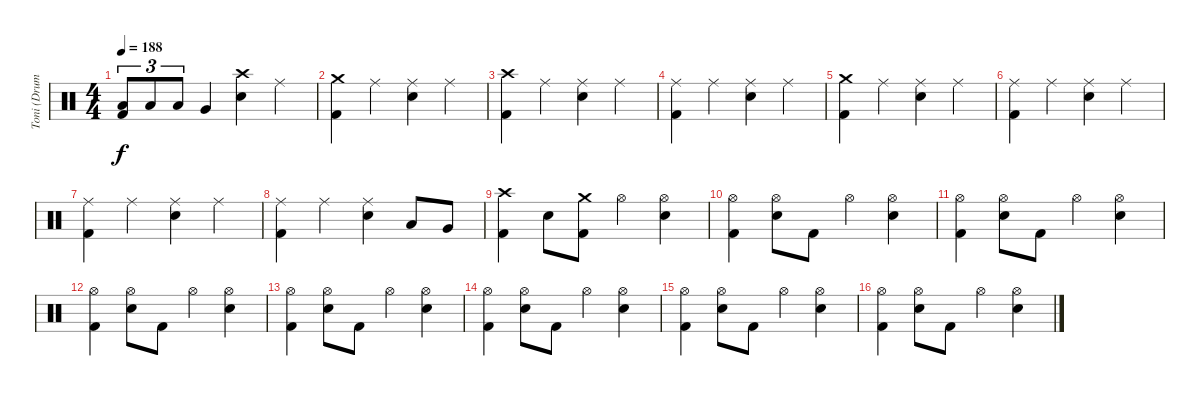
\track ("Toni (Drums)" "Toni (Drum") {instrument percussion}
\staff {score}
\articulation defaults
\ts (4 4)
\tempo 188
\clef neutral
\ks c
("Low Tom (hit)" "Kick (hit) 2").8{tu (3 2) dy f} "Low Tom (hit)".8{tu (3 2)} "Low Tom (hit)".8{tu (3 2)} "Very Low Tom (hit)".4 ("Crash high (hit)" "Electric Snare (hit)").4 "Ride (middle)".4 |
("Crash medium (hit)" "Kick (hit) 2").4 "Ride (middle)".4 ("Ride (middle)" "Electric Snare (hit)").4 "Ride (middle)".4 |
("Crash high (hit)" "Kick (hit) 2").4 "Ride (middle)".4 ("Ride (middle)" "Electric Snare (hit)").4 "Ride (middle)".4 |
("Ride (middle)" "Kick (hit) 2").4 "Ride (middle)".4 ("Ride (middle)" "Electric Snare (hit)").4 "Ride (middle)".4 |
("Crash medium (hit)" "Kick (hit) 2").4 "Ride (middle)".4 ("Ride (middle)" "Electric Snare (hit)").4 "Ride (middle)".4 |
("Ride (middle)" "Kick (hit) 2").4 "Ride (middle)".4 ("Ride (middle)" "Electric Snare (hit)").4 "Ride (middle)".4 |
("Ride (middle)" "Kick (hit) 2").4 "Ride (middle)".4 ("Ride (middle)" "Electric Snare (hit)").4 "Ride (middle)".4 |
("Ride (middle)" "Kick (hit) 2").4 "Ride (middle)".4 ("Ride (middle)" "Electric Snare (hit)").4 "Low Tom (hit)".8 "Very Low Tom (hit)".8 |
("Crash high (hit)" "Kick (hit) 2").4 "Electric Snare (hit)".8 ("Crash medium (hit)" "Kick (hit) 2").8 "Hi-Hat (open)".4 ("Hi-Hat (open)" "Electric Snare (hit)").4 |
("Hi-Hat (open)" "Kick (hit) 2").4 ("Hi-Hat (open)" "Electric Snare (hit)").8 "Kick (hit) 2".8 "Hi-Hat (open)".4 ("Hi-Hat (open)" "Electric Snare (hit)").4 |
("Hi-Hat (open)" "Kick (hit) 2").4 ("Hi-Hat (open)" "Electric Snare (hit)").8 "Kick (hit) 2".8 "Hi-Hat (open)".4 ("Hi-Hat (open)" "Electric Snare (hit)").4 |
("Hi-Hat (open)" "Kick (hit) 2").4 ("Hi-Hat (open)" "Electric Snare (hit)").8 "Kick (hit) 2".8 "Hi-Hat (open)".4 ("Hi-Hat (open)" "Electric Snare (hit)").4 |
("Hi-Hat (open)" "Kick (hit) 2").4 ("Hi-Hat (open)" "Electric Snare (hit)").8 "Kick (hit) 2".8 "Hi-Hat (open)".4 ("Hi-Hat (open)" "Electric Snare (hit)").4 |
("Hi-Hat (open)" "Kick (hit) 2").4 ("Hi-Hat (open)" "Electric Snare (hit)").8 "Kick (hit) 2".8 "Hi-Hat (open)".4 ("Hi-Hat (open)" "Electric Snare (hit)").4 |
("Hi-Hat (open)" "Kick (hit) 2").4 ("Hi-Hat (open)" "Electric Snare (hit)").8 "Kick (hit) 2".8 "Hi-Hat (open)".4 ("Hi-Hat (open)" "Electric Snare (hit)").4 |
("Hi-Hat (open)" "Kick (hit) 2").4 ("Hi-Hat (open)" "Electric Snare (hit)").8 "Kick (hit) 2".8 "Hi-Hat (open)".4 ("Hi-Hat (open)" "Electric Snare (hit)").4
